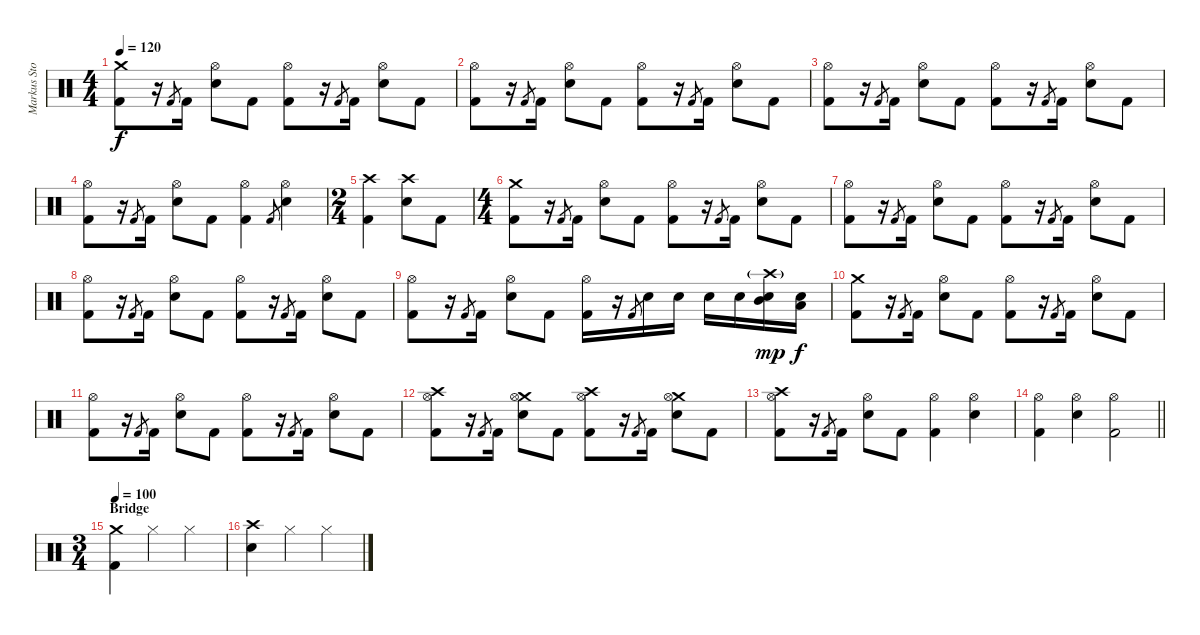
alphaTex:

\track ("Markus Stock" "Markus Sto") {instrument percussion}
\staff {score}
\articulation defaults
\ts (4 4)
\tempo 120
\clef neutral
\ks c
("Crash medium (hit)" "Kick (hit) 2").8{dy f} r.16 "Kick (hit) 2".8{gr} "Kick (hit) 2".16 ("Hi-Hat (open)" "Snare (hit) 2").8 "Kick (hit) 2".8 ("Hi-Hat (open)" "Kick (hit) 2").8 r.16 "Kick (hit) 2".8{gr} "Kick (hit) 2".16 ("Hi-Hat (open)" "Snare (hit) 2").8 "Kick (hit) 2".8 |
("Hi-Hat (open)" "Kick (hit) 2").8 r.16 "Kick (hit) 2".8{gr} "Kick (hit) 2".16 ("Hi-Hat (open)" "Snare (hit) 2").8 "Kick (hit) 2".8 ("Hi-Hat (open)" "Kick (hit) 2").8 r.16 "Kick (hit) 2".8{gr} "Kick (hit) 2".16 ("Hi-Hat (open)" "Snare (hit) 2").8 "Kick (hit) 2".8 |
("Hi-Hat (open)" "Kick (hit) 2").8 r.16 "Kick (hit) 2".8{gr} "Kick (hit) 2".16 ("Hi-Hat (open)" "Snare (hit) 2").8 "Kick (hit) 2".8 ("Hi-Hat (open)" "Kick (hit) 2").8 r.16 "Kick (hit) 2".8{gr} "Kick (hit) 2".16 ("Hi-Hat (open)" "Snare (hit) 2").8 "Kick (hit) 2".8 |
("Hi-Hat (open)" "Kick (hit) 2").8 r.16 "Kick (hit) 2".8{gr} "Kick (hit) 2".16 ("Hi-Hat (open)" "Snare (hit) 2").8 "Kick (hit) 2".8 ("Hi-Hat (open)" "Kick (hit) 2").4 "Kick (hit) 2".8{gr} ("Hi-Hat (open)" "Snare (hit) 2").4 |
\ts (2 4)
("Crash high (hit)" "Kick (hit) 2").4 ("Crash high (hit)" "Snare (hit) 2").8 "Kick (hit) 2".8 |
\ts (4 4)
("Crash medium (hit)" "Kick (hit) 2").8 r.16 "Kick (hit) 2".8{gr} "Kick (hit) 2".16 ("Hi-Hat (open)" "Snare (hit) 2").8 "Kick (hit) 2".8 ("Hi-Hat (open)" "Kick (hit) 2").8 r.16 "Kick (hit) 2".8{gr} "Kick (hit) 2".16 ("Hi-Hat (open)" "Snare (hit) 2").8 "Kick (hit) 2".8 |
("Hi-Hat (open)" "Kick (hit) 2").8 r.16 "Kick (hit) 2".8{gr} "Kick (hit) 2".16 ("Hi-Hat (open)" "Snare (hit) 2").8 "Kick (hit) 2".8 ("Hi-Hat (open)" "Kick (hit) 2").8 r.16 "Kick (hit) 2".8{gr} "Kick (hit) 2".16 ("Hi-Hat (open)" "Snare (hit) 2").8 "Kick (hit) 2".8 |
("Hi-Hat (open)" "Kick (hit) 2").8 r.16 "Kick (hit) 2".8{gr} "Kick (hit) 2".16 ("Hi-Hat (open)" "Snare (hit) 2").8 "Kick (hit) 2".8 ("Hi-Hat (open)" "Kick (hit) 2").8 r.16 "Kick (hit) 2".8{gr} "Kick (hit) 2".16 ("Hi-Hat (open)" "Snare (hit) 2").8 "Kick (hit) 2".8 |
("Hi-Hat (open)" "Kick (hit) 2").8 r.16 "Kick (hit) 2".8{gr} "Kick (hit) 2".16 ("Hi-Hat (open)" "Snare (hit) 2").8 "Kick (hit) 2".8 ("Hi-Hat (open)" "Kick (hit) 2").16 r.16 "Kick (hit) 2".8{gr} "Snare (hit) 2".16 "Snare (hit) 2".16 "Snare (hit) 2".16 "Snare (hit) 2".16 ("Crash high (hit)"{g} "Mid Tom (hit)" "Snare (hit) 2").16{dy mp} ("Low Tom (hit)" "Snare (hit) 2").16{dy f} |
("Crash medium (hit)" "Kick (hit) 2").8 r.16 "Kick (hit) 2".8{gr} "Kick (hit) 2".16 ("Hi-Hat (open)" "Snare (hit) 2").8 "Kick (hit) 2".8 ("Hi-Hat (open)" "Kick (hit) 2").8 r.16 "Kick (hit) 2".8{gr} "Kick (hit) 2".16 ("Hi-Hat (open)" "Snare (hit) 2").8 "Kick (hit) 2".8 |
("Hi-Hat (open)" "Kick (hit) 2").8 r.16 "Kick (hit) 2".8{gr} "Kick (hit) 2".16 ("Hi-Hat (open)" "Snare (hit) 2").8 "Kick (hit) 2".8 ("Hi-Hat (open)" "Kick (hit) 2").8 r.16 "Kick (hit) 2".8{gr} "Kick (hit) 2".16 ("Hi-Hat (open)" "Snare (hit) 2").8 "Kick (hit) 2".8 |
("Crash high (hit)" "Hi-Hat (open)" "Kick (hit) 2").8 r.16 "Kick (hit) 2".8{gr} "Kick (hit) 2".16 ("Crash medium (hit)" "Hi-Hat (open)" "Snare (hit) 2").8 "Kick (hit) 2".8 ("Crash high (hit)" "Hi-Hat (open)" "Kick (hit) 2").8 r.16 "Kick (hit) 2".8{gr} "Kick (hit) 2".16 ("Crash medium (hit)" "Hi-Hat (open)" "Snare (hit) 2").8 "Kick (hit) 2".8 |
("Crash high (hit)" "Hi-Hat (open)" "Kick (hit) 2").8 r.16 "Kick (hit) 2".8{gr} "Kick (hit) 2".16 ("Hi-Hat (open)" "Snare (hit) 2").8 "Kick (hit) 2".8 ("Hi-Hat (open)" "Kick (hit) 2").4 ("Hi-Hat (open)" "Snare (hit) 2").4 |
\barLineRight lightlight
("Hi-Hat (open)" "Kick (hit) 2").4 ("Hi-Hat (open)" "Snare (hit) 2").4 ("Hi-Hat (open)" "Kick (hit) 2").2 |
\ts (3 4)
\section ("" "Bridge")
\tempo 100
("Crash medium (hit)" "Kick (hit) 2").4 "Hi-Hat (closed)".4 "Hi-Hat (closed)".4 |
("Crash high (hit)" "Snare (hit) 2").4 "Hi-Hat (closed)".4 "Hi-Hat (closed)".4
